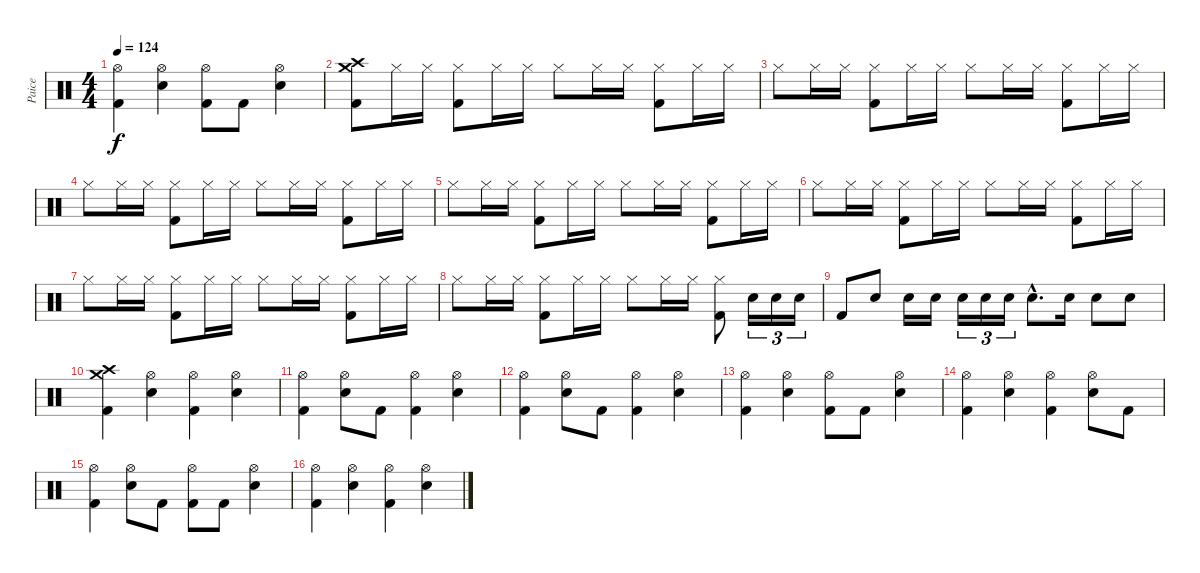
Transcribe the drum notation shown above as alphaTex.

\track ("Paice" "Paice") {instrument percussion}
\staff {score}
\articulation defaults
\ts (4 4)
\tempo 124
\clef neutral
\ks c
("Hi-Hat (open)" "Kick (hit) 2").4{dy f} ("Hi-Hat (open)" "Electric Snare (hit)").4 ("Hi-Hat (open)" "Kick (hit) 2").8 "Kick (hit) 2".8 ("Hi-Hat (open)" "Electric Snare (hit)").4 |
("Crash high (hit)" "Crash medium (hit)" "Kick (hit) 2").8 "Hi-Hat (closed)".16 "Hi-Hat (closed)".16 ("Hi-Hat (closed)" "Kick (hit) 2").8 "Hi-Hat (closed)".16 "Hi-Hat (closed)".16 "Hi-Hat (closed)".8 "Hi-Hat (closed)".16 "Hi-Hat (closed)".16 ("Hi-Hat (closed)" "Kick (hit) 2").8 "Hi-Hat (closed)".16 "Hi-Hat (closed)".16 |
"Hi-Hat (closed)".8 "Hi-Hat (closed)".16 "Hi-Hat (closed)".16 ("Hi-Hat (closed)" "Kick (hit) 2").8 "Hi-Hat (closed)".16 "Hi-Hat (closed)".16 "Hi-Hat (closed)".8 "Hi-Hat (closed)".16 "Hi-Hat (closed)".16 ("Hi-Hat (closed)" "Kick (hit) 2").8 "Hi-Hat (closed)".16 "Hi-Hat (closed)".16 |
"Hi-Hat (closed)".8 "Hi-Hat (closed)".16 "Hi-Hat (closed)".16 ("Hi-Hat (closed)" "Kick (hit) 2").8 "Hi-Hat (closed)".16 "Hi-Hat (closed)".16 "Hi-Hat (closed)".8 "Hi-Hat (closed)".16 "Hi-Hat (closed)".16 ("Hi-Hat (closed)" "Kick (hit) 2").8 "Hi-Hat (closed)".16 "Hi-Hat (closed)".16 |
"Hi-Hat (closed)".8 "Hi-Hat (closed)".16 "Hi-Hat (closed)".16 ("Hi-Hat (closed)" "Kick (hit) 2").8 "Hi-Hat (closed)".16 "Hi-Hat (closed)".16 "Hi-Hat (closed)".8 "Hi-Hat (closed)".16 "Hi-Hat (closed)".16 ("Hi-Hat (closed)" "Kick (hit) 2").8 "Hi-Hat (closed)".16 "Hi-Hat (closed)".16 |
"Hi-Hat (closed)".8 "Hi-Hat (closed)".16 "Hi-Hat (closed)".16 ("Hi-Hat (closed)" "Kick (hit) 2").8 "Hi-Hat (closed)".16 "Hi-Hat (closed)".16 "Hi-Hat (closed)".8 "Hi-Hat (closed)".16 "Hi-Hat (closed)".16 ("Hi-Hat (closed)" "Kick (hit) 2").8 "Hi-Hat (closed)".16 "Hi-Hat (closed)".16 |
"Hi-Hat (closed)".8 "Hi-Hat (closed)".16 "Hi-Hat (closed)".16 ("Hi-Hat (closed)" "Kick (hit) 2").8 "Hi-Hat (closed)".16 "Hi-Hat (closed)".16 "Hi-Hat (closed)".8 "Hi-Hat (closed)".16 "Hi-Hat (closed)".16 ("Hi-Hat (closed)" "Kick (hit) 2").8 "Hi-Hat (closed)".16 "Hi-Hat (closed)".16 |
"Hi-Hat (closed)".8 "Hi-Hat (closed)".16 "Hi-Hat (closed)".16 ("Hi-Hat (closed)" "Kick (hit) 2").8 "Hi-Hat (closed)".16 "Hi-Hat (closed)".16 "Hi-Hat (closed)".8 "Hi-Hat (closed)".16 "Hi-Hat (closed)".16 ("Hi-Hat (closed)" "Kick (hit) 2").8 "Electric Snare (hit)".16{tu (3 2)} "Electric Snare (hit)".16{tu (3 2)} "Electric Snare (hit)".16{tu (3 2)} |
"Kick (hit) 2".8 "Electric Snare (hit)".8 "Electric Snare (hit)".16 "Electric Snare (hit)".16 "Electric Snare (hit)".16{tu (3 2)} "Electric Snare (hit)".16{tu (3 2)} "Electric Snare (hit)".16{tu (3 2)} "Electric Snare (hit)"{hac}.8{d} "Electric Snare (hit)".16 "Electric Snare (hit)".8 "Electric Snare (hit)".8 |
("Crash high (hit)" "Crash medium (hit)" "Kick (hit) 2").4 ("Hi-Hat (open)" "Electric Snare (hit)").4 ("Hi-Hat (open)" "Kick (hit) 2").4 ("Hi-Hat (open)" "Electric Snare (hit)").4 |
("Hi-Hat (open)" "Kick (hit) 2").4 ("Hi-Hat (open)" "Electric Snare (hit)").8 "Kick (hit) 2".8 ("Hi-Hat (open)" "Kick (hit) 2").4 ("Hi-Hat (open)" "Electric Snare (hit)").4 |
("Hi-Hat (open)" "Kick (hit) 2").4 ("Hi-Hat (open)" "Electric Snare (hit)").8 "Kick (hit) 2".8 ("Hi-Hat (open)" "Kick (hit) 2").4 ("Hi-Hat (open)" "Electric Snare (hit)").4 |
("Hi-Hat (open)" "Kick (hit) 2").4 ("Hi-Hat (open)" "Electric Snare (hit)").4 ("Hi-Hat (open)" "Kick (hit) 2").8 "Kick (hit) 2".8 ("Hi-Hat (open)" "Electric Snare (hit)").4 |
("Hi-Hat (open)" "Kick (hit) 2").4 ("Hi-Hat (open)" "Electric Snare (hit)").4 ("Hi-Hat (open)" "Kick (hit) 2").4 ("Hi-Hat (open)" "Electric Snare (hit)").8 "Kick (hit) 2".8 |
("Hi-Hat (open)" "Kick (hit) 2").4 ("Hi-Hat (open)" "Electric Snare (hit)").8 "Kick (hit) 2".8 ("Hi-Hat (open)" "Kick (hit) 2").8 "Kick (hit) 2".8 ("Hi-Hat (open)" "Electric Snare (hit)").4 |
("Hi-Hat (open)" "Kick (hit) 2").4 ("Hi-Hat (open)" "Electric Snare (hit)").4 ("Hi-Hat (open)" "Kick (hit) 2").4 ("Hi-Hat (open)" "Electric Snare (hit)").4
